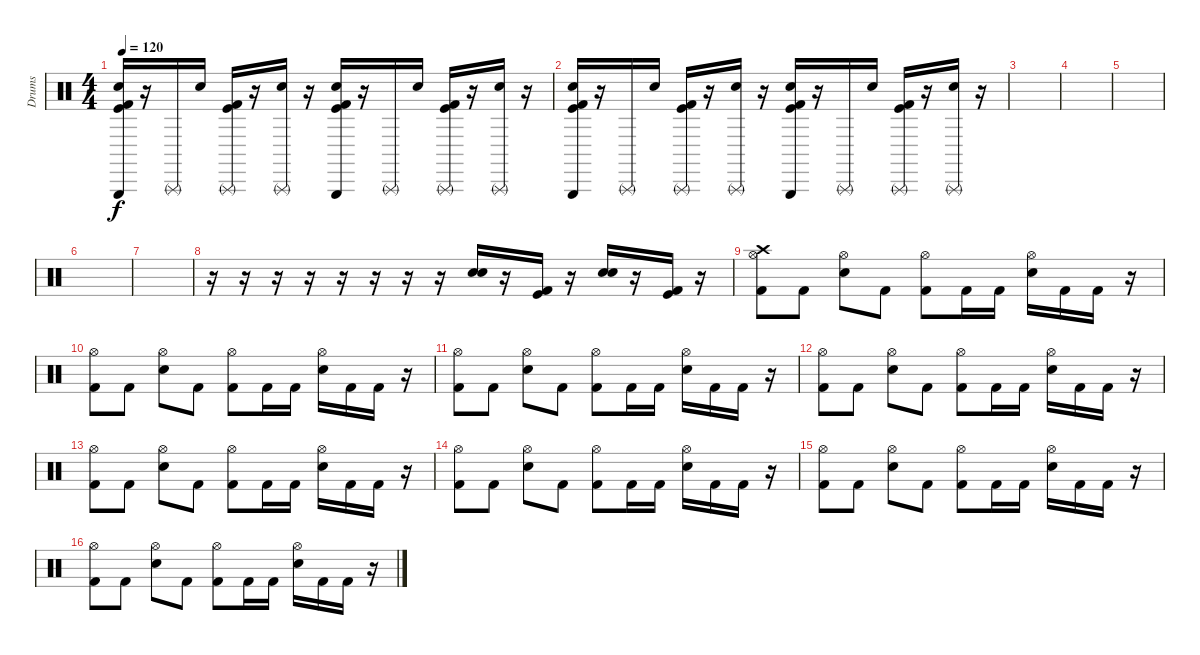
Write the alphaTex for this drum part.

\track ("Drums" "Drums") {instrument percussion}
\staff {score}
\articulation defaults
\ts (4 4)
\tempo 120
\clef neutral
\ks c
("Triangle (hit)" "Electric Snare (hit)" "Kick (hit) 2" "Kick (hit)").16{dy f} r.16 "Triangle (rnute)".16 "Electric Snare (hit)".16 ("Triangle (rnute)" "Kick (hit) 2" "Kick (hit)").16 r.16 ("Triangle (rnute)" "Electric Snare (hit)").16 r.16 ("Triangle (hit)" "Electric Snare (hit)" "Kick (hit) 2" "Kick (hit)").16 r.16 "Triangle (rnute)".16 "Electric Snare (hit)".16 ("Triangle (rnute)" "Kick (hit) 2" "Kick (hit)").16 r.16 ("Triangle (rnute)" "Electric Snare (hit)").16 r.16 |
("Triangle (hit)" "Electric Snare (hit)" "Kick (hit) 2" "Kick (hit)").16 r.16 "Triangle (rnute)".16 "Electric Snare (hit)".16 ("Triangle (rnute)" "Kick (hit) 2" "Kick (hit)").16 r.16 ("Triangle (rnute)" "Electric Snare (hit)").16 r.16 ("Triangle (hit)" "Electric Snare (hit)" "Kick (hit) 2" "Kick (hit)").16 r.16 "Triangle (rnute)".16 "Electric Snare (hit)".16 ("Triangle (rnute)" "Kick (hit) 2" "Kick (hit)").16 r.16 ("Triangle (rnute)" "Electric Snare (hit)").16 r.16 |
|
|
|
|
|
r.16 r.16 r.16 r.16 r.16 r.16 r.16 r.16 ("Snare (hit) 2" "Snare (hit) 2").16 r.16 ("Kick (hit) 2" "Kick (hit)").16 r.16 ("Snare (hit) 2" "Snare (hit) 2").16 r.16 ("Kick (hit) 2" "Kick (hit)").16 r.16 |
("Crash high (hit)" "Hi-Hat (open)" "Kick (hit) 2").8 "Kick (hit) 2".8 ("Hi-Hat (open)" "Snare (hit) 2").8 "Kick (hit) 2".8 ("Hi-Hat (open)" "Kick (hit) 2").8 "Kick (hit) 2".16 "Kick (hit) 2".16 ("Hi-Hat (open)" "Snare (hit) 2").16 "Kick (hit) 2".16 "Kick (hit) 2".16 r.16 |
("Hi-Hat (open)" "Kick (hit) 2").8 "Kick (hit) 2".8 ("Hi-Hat (open)" "Snare (hit) 2").8 "Kick (hit) 2".8 ("Hi-Hat (open)" "Kick (hit) 2").8 "Kick (hit) 2".16 "Kick (hit) 2".16 ("Hi-Hat (open)" "Snare (hit) 2").16 "Kick (hit) 2".16 "Kick (hit) 2".16 r.16 |
("Hi-Hat (open)" "Kick (hit) 2").8 "Kick (hit) 2".8 ("Hi-Hat (open)" "Snare (hit) 2").8 "Kick (hit) 2".8 ("Hi-Hat (open)" "Kick (hit) 2").8 "Kick (hit) 2".16 "Kick (hit) 2".16 ("Hi-Hat (open)" "Snare (hit) 2").16 "Kick (hit) 2".16 "Kick (hit) 2".16 r.16 |
("Hi-Hat (open)" "Kick (hit) 2").8 "Kick (hit) 2".8 ("Hi-Hat (open)" "Snare (hit) 2").8 "Kick (hit) 2".8 ("Hi-Hat (open)" "Kick (hit) 2").8 "Kick (hit) 2".16 "Kick (hit) 2".16 ("Hi-Hat (open)" "Snare (hit) 2").16 "Kick (hit) 2".16 "Kick (hit) 2".16 r.16 |
("Hi-Hat (open)" "Kick (hit) 2").8 "Kick (hit) 2".8 ("Hi-Hat (open)" "Snare (hit) 2").8 "Kick (hit) 2".8 ("Hi-Hat (open)" "Kick (hit) 2").8 "Kick (hit) 2".16 "Kick (hit) 2".16 ("Hi-Hat (open)" "Snare (hit) 2").16 "Kick (hit) 2".16 "Kick (hit) 2".16 r.16 |
("Hi-Hat (open)" "Kick (hit) 2").8 "Kick (hit) 2".8 ("Hi-Hat (open)" "Snare (hit) 2").8 "Kick (hit) 2".8 ("Hi-Hat (open)" "Kick (hit) 2").8 "Kick (hit) 2".16 "Kick (hit) 2".16 ("Hi-Hat (open)" "Snare (hit) 2").16 "Kick (hit) 2".16 "Kick (hit) 2".16 r.16 |
("Hi-Hat (open)" "Kick (hit) 2").8 "Kick (hit) 2".8 ("Hi-Hat (open)" "Snare (hit) 2").8 "Kick (hit) 2".8 ("Hi-Hat (open)" "Kick (hit) 2").8 "Kick (hit) 2".16 "Kick (hit) 2".16 ("Hi-Hat (open)" "Snare (hit) 2").16 "Kick (hit) 2".16 "Kick (hit) 2".16 r.16 |
("Hi-Hat (open)" "Kick (hit) 2").8 "Kick (hit) 2".8 ("Hi-Hat (open)" "Snare (hit) 2").8 "Kick (hit) 2".8 ("Hi-Hat (open)" "Kick (hit) 2").8 "Kick (hit) 2".16 "Kick (hit) 2".16 ("Hi-Hat (open)" "Snare (hit) 2").16 "Kick (hit) 2".16 "Kick (hit) 2".16 r.16
